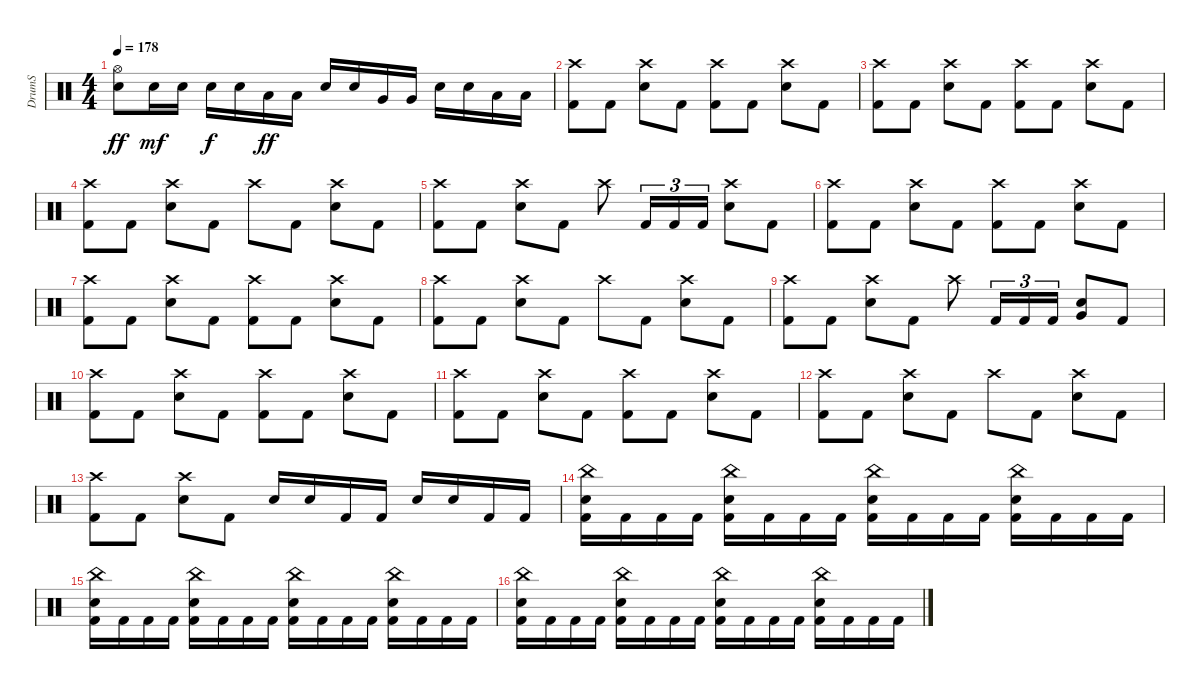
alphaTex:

\track ("DrumS" "DrumS") {instrument percussion}
\staff {score}
\articulation defaults
\ts (4 4)
\tempo 178
\clef neutral
\ks c
("Hi-Hat (open)" "Electric Snare (hit)").8{dy ff} "Electric Snare (hit)".16{dy mf} "Electric Snare (hit)".16 "Electric Snare (hit)".16{dy f} "Electric Snare (hit)".16 "Low Tom (hit)".16{dy ff} "Low Tom (hit)".16 "Electric Snare (hit)".16 "Electric Snare (hit)".16 "Very Low Tom (hit)".16 "Very Low Tom (hit)".16 "Electric Snare (hit)".16 "Electric Snare (hit)".16 "Low Floor Tom (hit)".16 "Low Floor Tom (hit)".16 |
("Crash high (hit)" "Kick (hit) 2").8 "Kick (hit) 2".8 ("Crash high (hit)" "Electric Snare (hit)").8 "Kick (hit) 2".8 ("Crash high (hit)" "Kick (hit) 2").8 "Kick (hit) 2".8 ("Crash high (hit)" "Electric Snare (hit)").8 "Kick (hit) 2".8 |
("Crash high (hit)" "Kick (hit) 2").8 "Kick (hit) 2".8 ("Crash high (hit)" "Electric Snare (hit)").8 "Kick (hit) 2".8 ("Crash high (hit)" "Kick (hit) 2").8 "Kick (hit) 2".8 ("Crash high (hit)" "Electric Snare (hit)").8 "Kick (hit) 2".8 |
("Crash high (hit)" "Kick (hit) 2").8 "Kick (hit) 2".8 ("Crash high (hit)" "Electric Snare (hit)").8 "Kick (hit) 2".8 "Crash high (hit)".8 "Kick (hit) 2".8 ("Crash high (hit)" "Electric Snare (hit)").8 "Kick (hit) 2".8 |
("Crash high (hit)" "Kick (hit) 2").8 "Kick (hit) 2".8 ("Crash high (hit)" "Electric Snare (hit)").8 "Kick (hit) 2".8 "Crash high (hit)".8 "Kick (hit) 2".16{tu (3 2)} "Kick (hit) 2".16{tu (3 2)} "Kick (hit) 2".16{tu (3 2)} ("Crash high (hit)" "Electric Snare (hit)").8 "Kick (hit) 2".8 |
("Crash high (hit)" "Kick (hit) 2").8 "Kick (hit) 2".8 ("Crash high (hit)" "Electric Snare (hit)").8 "Kick (hit) 2".8 ("Crash high (hit)" "Kick (hit) 2").8 "Kick (hit) 2".8 ("Crash high (hit)" "Electric Snare (hit)").8 "Kick (hit) 2".8 |
("Crash high (hit)" "Kick (hit) 2").8 "Kick (hit) 2".8 ("Crash high (hit)" "Electric Snare (hit)").8 "Kick (hit) 2".8 ("Crash high (hit)" "Kick (hit) 2").8 "Kick (hit) 2".8 ("Crash high (hit)" "Electric Snare (hit)").8 "Kick (hit) 2".8 |
("Crash high (hit)" "Kick (hit) 2").8 "Kick (hit) 2".8 ("Crash high (hit)" "Electric Snare (hit)").8 "Kick (hit) 2".8 "Crash high (hit)".8 "Kick (hit) 2".8 ("Crash high (hit)" "Electric Snare (hit)").8 "Kick (hit) 2".8 |
("Crash high (hit)" "Kick (hit) 2").8 "Kick (hit) 2".8 ("Crash high (hit)" "Electric Snare (hit)").8 "Kick (hit) 2".8 "Crash high (hit)".8 "Kick (hit) 2".16{tu (3 2)} "Kick (hit) 2".16{tu (3 2)} "Kick (hit) 2".16{tu (3 2)} ("Very Low Tom (hit)" "Electric Snare (hit)").8 "Kick (hit) 2".8 |
("Crash high (hit)" "Kick (hit) 2").8 "Kick (hit) 2".8 ("Crash high (hit)" "Electric Snare (hit)").8 "Kick (hit) 2".8 ("Crash high (hit)" "Kick (hit) 2").8 "Kick (hit) 2".8 ("Crash high (hit)" "Electric Snare (hit)").8 "Kick (hit) 2".8 |
("Crash high (hit)" "Kick (hit) 2").8 "Kick (hit) 2".8 ("Crash high (hit)" "Electric Snare (hit)").8 "Kick (hit) 2".8 ("Crash high (hit)" "Kick (hit) 2").8 "Kick (hit) 2".8 ("Crash high (hit)" "Electric Snare (hit)").8 "Kick (hit) 2".8 |
("Crash high (hit)" "Kick (hit) 2").8 "Kick (hit) 2".8 ("Crash high (hit)" "Electric Snare (hit)").8 "Kick (hit) 2".8 "Crash high (hit)".8 "Kick (hit) 2".8 ("Crash high (hit)" "Electric Snare (hit)").8 "Kick (hit) 2".8 |
("Crash high (hit)" "Kick (hit) 2").8 "Kick (hit) 2".8 ("Crash high (hit)" "Electric Snare (hit)").8 "Kick (hit) 2".8 "Electric Snare (hit)".16 "Electric Snare (hit)".16 "Kick (hit) 2".16 "Kick (hit) 2".16 "Electric Snare (hit)".16 "Electric Snare (hit)".16 "Kick (hit) 2".16 "Kick (hit) 2".16 |
("China (hit)" "Electric Snare (hit)" "Kick (hit) 2").16 "Kick (hit) 2".16 "Kick (hit) 2".16 "Kick (hit) 2".16 ("China (hit)" "Electric Snare (hit)" "Kick (hit) 2").16 "Kick (hit) 2".16 "Kick (hit) 2".16 "Kick (hit) 2".16 ("China (hit)" "Electric Snare (hit)" "Kick (hit) 2").16 "Kick (hit) 2".16 "Kick (hit) 2".16 "Kick (hit) 2".16 ("China (hit)" "Electric Snare (hit)" "Kick (hit) 2").16 "Kick (hit) 2".16 "Kick (hit) 2".16 "Kick (hit) 2".16 |
("China (hit)" "Electric Snare (hit)" "Kick (hit) 2").16 "Kick (hit) 2".16 "Kick (hit) 2".16 "Kick (hit) 2".16 ("China (hit)" "Electric Snare (hit)" "Kick (hit) 2").16 "Kick (hit) 2".16 "Kick (hit) 2".16 "Kick (hit) 2".16 ("China (hit)" "Electric Snare (hit)" "Kick (hit) 2").16 "Kick (hit) 2".16 "Kick (hit) 2".16 "Kick (hit) 2".16 ("China (hit)" "Electric Snare (hit)" "Kick (hit) 2").16 "Kick (hit) 2".16 "Kick (hit) 2".16 "Kick (hit) 2".16 |
("China (hit)" "Electric Snare (hit)" "Kick (hit) 2").16 "Kick (hit) 2".16 "Kick (hit) 2".16 "Kick (hit) 2".16 ("China (hit)" "Electric Snare (hit)" "Kick (hit) 2").16 "Kick (hit) 2".16 "Kick (hit) 2".16 "Kick (hit) 2".16 ("China (hit)" "Electric Snare (hit)" "Kick (hit) 2").16 "Kick (hit) 2".16 "Kick (hit) 2".16 "Kick (hit) 2".16 ("China (hit)" "Electric Snare (hit)" "Kick (hit) 2").16 "Kick (hit) 2".16 "Kick (hit) 2".16 "Kick (hit) 2".16
